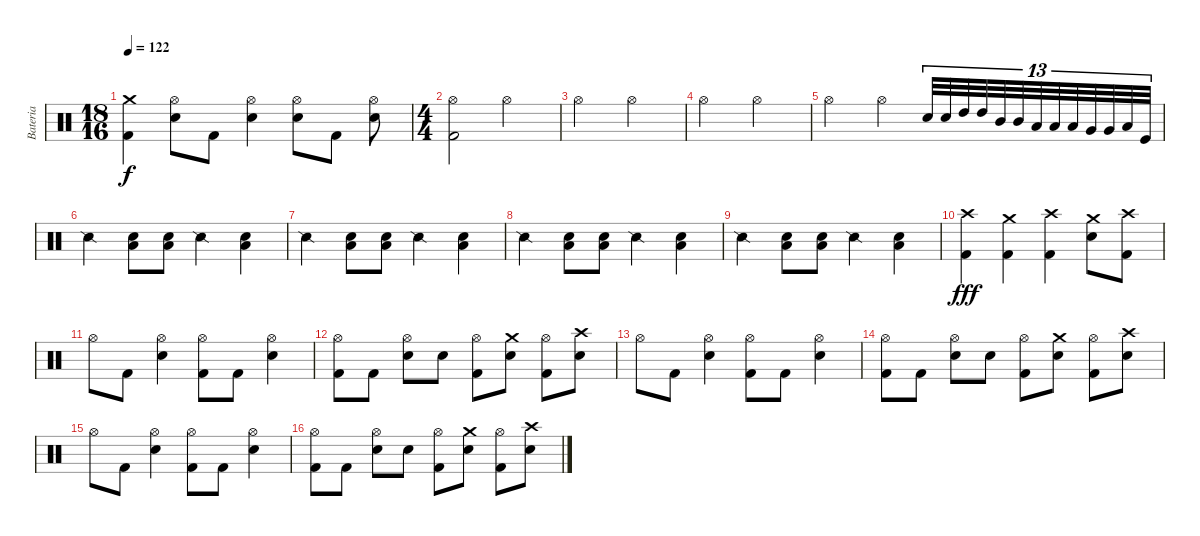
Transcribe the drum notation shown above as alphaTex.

\track ("Bateria" "Bateria") {instrument percussion}
\staff {score}
\articulation defaults
\ts (18 16)
\tempo 122
\clef neutral
\ks c
("Crash medium (hit)" "Kick (hit) 2").4{dy f} ("Hi-Hat (open)" "Electric Snare (hit)").8 "Kick (hit) 2".8 ("Hi-Hat (open)" "Electric Snare (hit)").4 ("Hi-Hat (open)" "Electric Snare (hit)").8 "Kick (hit) 2".8 ("Hi-Hat (open)" "Electric Snare (hit)").8 |
\ts (4 4)
("Hi-Hat (open)" "Kick (hit) 2").2 "Hi-Hat (open)".2 |
"Hi-Hat (open)".2 "Hi-Hat (open)".2 |
"Hi-Hat (open)".2 "Hi-Hat (open)".2 |
"Hi-Hat (open)".2 "Hi-Hat (open)".4 "Electric Snare (hit)".32{tu (13 8)} "Electric Snare (hit)".32{tu (13 8)} "High Tom (hit)".32{tu (13 8)} "High Tom (hit)".32{tu (13 8)} "Mid Tom (hit)".32{tu (13 8)} "Mid Tom (hit)".32{tu (13 8)} "Low Tom (hit)".32{tu (13 8)} "Low Tom (hit)".32{tu (13 8)} "Low Tom (hit)".32{tu (13 8)} "Very Low Tom (hit)".32{tu (13 8)} "Very Low Tom (hit)".32{tu (13 8)} "Low Floor Tom (hit)".32{tu (13 8)} "Kick (hit)".32{tu (13 8)} |
"Snare (side stick) 2".4 ("Electric Snare (hit)" "Low Floor Tom (hit)").8 ("Electric Snare (hit)" "Low Floor Tom (hit)").8 "Snare (side stick) 2".4 ("Electric Snare (hit)" "Low Floor Tom (hit)").4 |
"Snare (side stick) 2".4 ("Electric Snare (hit)" "Low Floor Tom (hit)").8 ("Electric Snare (hit)" "Low Floor Tom (hit)").8 "Snare (side stick) 2".4 ("Electric Snare (hit)" "Low Floor Tom (hit)").4 |
"Snare (side stick) 2".4 ("Electric Snare (hit)" "Low Floor Tom (hit)").8 ("Electric Snare (hit)" "Low Floor Tom (hit)").8 "Snare (side stick) 2".4 ("Electric Snare (hit)" "Low Floor Tom (hit)").4 |
"Snare (side stick) 2".4 ("Electric Snare (hit)" "Low Floor Tom (hit)").8 ("Electric Snare (hit)" "Low Floor Tom (hit)").8 "Snare (side stick) 2".4 ("Electric Snare (hit)" "Low Floor Tom (hit)").4 |
("Crash high (hit)" "Kick (hit) 2").4{dy fff} ("Crash medium (hit)" "Kick (hit) 2").4 ("Crash high (hit)" "Kick (hit) 2").4 ("Crash medium (hit)" "Electric Snare (hit)").8 ("Crash high (hit)" "Kick (hit) 2").8 |
"Hi-Hat (open)".8 "Kick (hit) 2".8 ("Hi-Hat (open)" "Electric Snare (hit)").4 ("Hi-Hat (open)" "Kick (hit) 2").8 "Kick (hit) 2".8 ("Hi-Hat (open)" "Electric Snare (hit)").4 |
("Hi-Hat (open)" "Kick (hit) 2").8 "Kick (hit) 2".8 ("Hi-Hat (open)" "Electric Snare (hit)").8 "Electric Snare (hit)".8 ("Hi-Hat (open)" "Kick (hit) 2").8 ("Crash medium (hit)" "Electric Snare (hit)").8 ("Hi-Hat (open)" "Kick (hit) 2").8 ("Crash high (hit)" "Electric Snare (hit)").8 |
"Hi-Hat (open)".8 "Kick (hit) 2".8 ("Hi-Hat (open)" "Electric Snare (hit)").4 ("Hi-Hat (open)" "Kick (hit) 2").8 "Kick (hit) 2".8 ("Hi-Hat (open)" "Electric Snare (hit)").4 |
("Hi-Hat (open)" "Kick (hit) 2").8 "Kick (hit) 2".8 ("Hi-Hat (open)" "Electric Snare (hit)").8 "Electric Snare (hit)".8 ("Hi-Hat (open)" "Kick (hit) 2").8 ("Crash medium (hit)" "Electric Snare (hit)").8 ("Hi-Hat (open)" "Kick (hit) 2").8 ("Crash high (hit)" "Electric Snare (hit)").8 |
"Hi-Hat (open)".8 "Kick (hit) 2".8 ("Hi-Hat (open)" "Electric Snare (hit)").4 ("Hi-Hat (open)" "Kick (hit) 2").8 "Kick (hit) 2".8 ("Hi-Hat (open)" "Electric Snare (hit)").4 |
("Hi-Hat (open)" "Kick (hit) 2").8 "Kick (hit) 2".8 ("Hi-Hat (open)" "Electric Snare (hit)").8 "Electric Snare (hit)".8 ("Hi-Hat (open)" "Kick (hit) 2").8 ("Crash medium (hit)" "Electric Snare (hit)").8 ("Hi-Hat (open)" "Kick (hit) 2").8 ("Crash high (hit)" "Electric Snare (hit)").8
